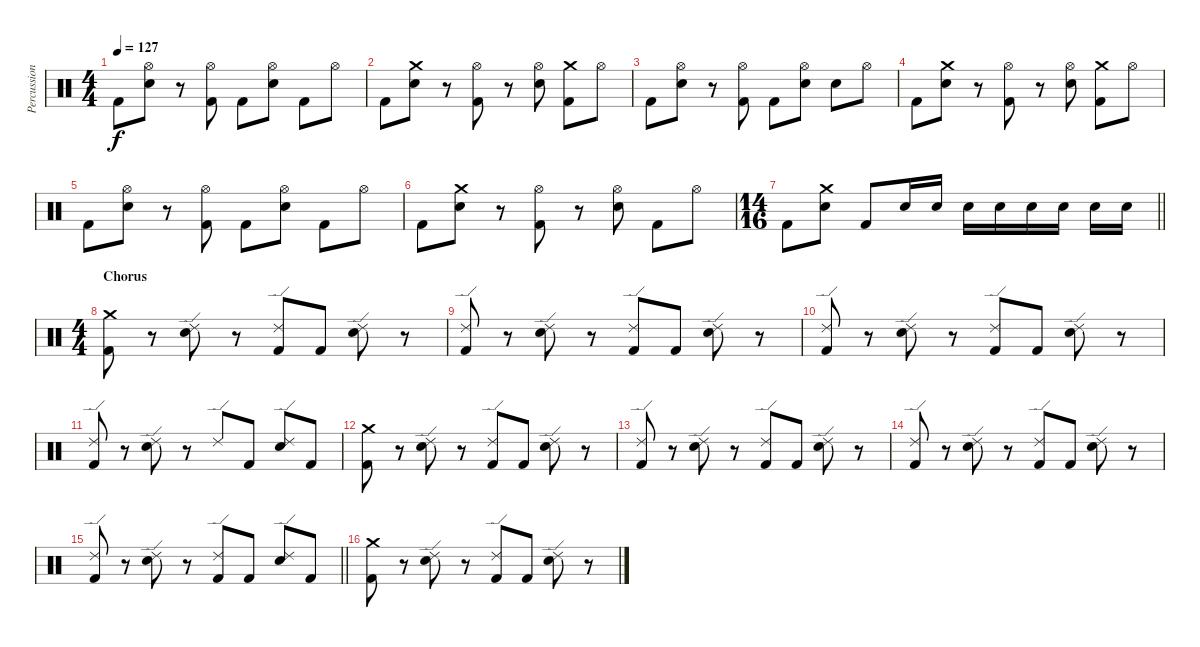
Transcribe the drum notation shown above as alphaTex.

\track ("Percussion" "Percussion") {instrument percussion}
\staff {score}
\articulation defaults
\ts (4 4)
\tempo 127
\clef neutral
\ks c "Kick (hit) 2".8{dy f}
("Hi-Hat (open)" "Electric Snare (hit)").8 r.8 ("Hi-Hat (open)" "Kick (hit) 2").8 "Kick (hit) 2".8 ("Hi-Hat (open)" "Electric Snare (hit)").8 "Kick (hit) 2".8 "Hi-Hat (open)".8 |
"Kick (hit) 2".8 ("Crash medium (hit)" "Electric Snare (hit)").8 r.8 ("Hi-Hat (open)" "Kick (hit) 2").8 r.8 ("Hi-Hat (open)" "Electric Snare (hit)").8 ("Crash medium (hit)" "Kick (hit) 2").8 "Hi-Hat (open)".8 |
"Kick (hit) 2".8 ("Hi-Hat (open)" "Electric Snare (hit)").8 r.8 ("Hi-Hat (open)" "Kick (hit) 2").8 "Kick (hit) 2".8 ("Hi-Hat (open)" "Electric Snare (hit)").8 "Electric Snare (hit)".8 "Hi-Hat (open)".8 |
"Kick (hit) 2".8 ("Crash medium (hit)" "Electric Snare (hit)").8 r.8 ("Hi-Hat (open)" "Kick (hit) 2").8 r.8 ("Hi-Hat (open)" "Electric Snare (hit)").8 ("Crash medium (hit)" "Kick (hit) 2").8 "Hi-Hat (open)".8 |
"Kick (hit) 2".8 ("Hi-Hat (open)" "Electric Snare (hit)").8 r.8 ("Hi-Hat (open)" "Kick (hit) 2").8 "Kick (hit) 2".8 ("Hi-Hat (open)" "Electric Snare (hit)").8 "Kick (hit) 2".8 "Hi-Hat (open)".8 |
"Kick (hit) 2".8 ("Crash medium (hit)" "Electric Snare (hit)").8 r.8 ("Hi-Hat (open)" "Kick (hit) 2").8 r.8 ("Hi-Hat (open)" "Electric Snare (hit)").8 "Kick (hit) 2".8 "Hi-Hat (open)".8 |
\ts (14 16)
\barLineRight lightlight "Kick (hit) 2".8
("Crash medium (hit)" "Electric Snare (hit)").8 "Kick (hit) 2".8 "Electric Snare (hit)".16 "Electric Snare (hit)".16 "Electric Snare (hit)".16 "Electric Snare (hit)".16 "Electric Snare (hit)".16 "Electric Snare (hit)".16 "Electric Snare (hit)".16 "Electric Snare (hit)".16 |
\ts (4 4)
\section ("" "Chorus")
("Crash medium (hit)" "Kick (hit) 2").8 r.8 ("Ride (edge) 2" "Electric Snare (hit)").8 r.8 ("Ride (edge) 2" "Kick (hit) 2").8 "Kick (hit) 2".8 ("Ride (edge) 2" "Electric Snare (hit)").8 r.8 |
("Ride (edge) 2" "Kick (hit) 2").8 r.8 ("Ride (edge) 2" "Electric Snare (hit)").8 r.8 ("Ride (edge) 2" "Kick (hit) 2").8 "Kick (hit) 2".8 ("Ride (edge) 2" "Electric Snare (hit)").8 r.8 |
("Ride (edge) 2" "Kick (hit) 2").8 r.8 ("Ride (edge) 2" "Electric Snare (hit)").8 r.8 ("Ride (edge) 2" "Kick (hit) 2").8 "Kick (hit) 2".8 ("Ride (edge) 2" "Electric Snare (hit)").8 r.8 |
("Ride (edge) 2" "Kick (hit) 2").8 r.8 ("Ride (edge) 2" "Electric Snare (hit)").8 r.8 "Ride (edge) 2".8 "Kick (hit) 2".8 ("Ride (edge) 2" "Electric Snare (hit)").8 "Kick (hit) 2".8 |
("Crash medium (hit)" "Kick (hit) 2").8 r.8 ("Ride (edge) 2" "Electric Snare (hit)").8 r.8 ("Ride (edge) 2" "Kick (hit) 2").8 "Kick (hit) 2".8 ("Ride (edge) 2" "Electric Snare (hit)").8 r.8 |
("Ride (edge) 2" "Kick (hit) 2").8 r.8 ("Ride (edge) 2" "Electric Snare (hit)").8 r.8 ("Ride (edge) 2" "Kick (hit) 2").8 "Kick (hit) 2".8 ("Ride (edge) 2" "Electric Snare (hit)").8 r.8 |
("Ride (edge) 2" "Kick (hit) 2").8 r.8 ("Ride (edge) 2" "Electric Snare (hit)").8 r.8 ("Ride (edge) 2" "Kick (hit) 2").8 "Kick (hit) 2".8 ("Ride (edge) 2" "Electric Snare (hit)").8 r.8 |
\barLineRight lightlight
("Ride (edge) 2" "Kick (hit) 2").8 r.8 ("Ride (edge) 2" "Electric Snare (hit)").8 r.8 ("Ride (edge) 2" "Kick (hit) 2").8 "Kick (hit) 2".8 ("Ride (edge) 2" "Electric Snare (hit)").8 "Kick (hit) 2".8 |
("Crash medium (hit)" "Kick (hit) 2").8 r.8 ("Ride (edge) 2" "Electric Snare (hit)").8 r.8 ("Ride (edge) 2" "Kick (hit) 2").8 "Kick (hit) 2".8 ("Ride (edge) 2" "Electric Snare (hit)").8 r.8
